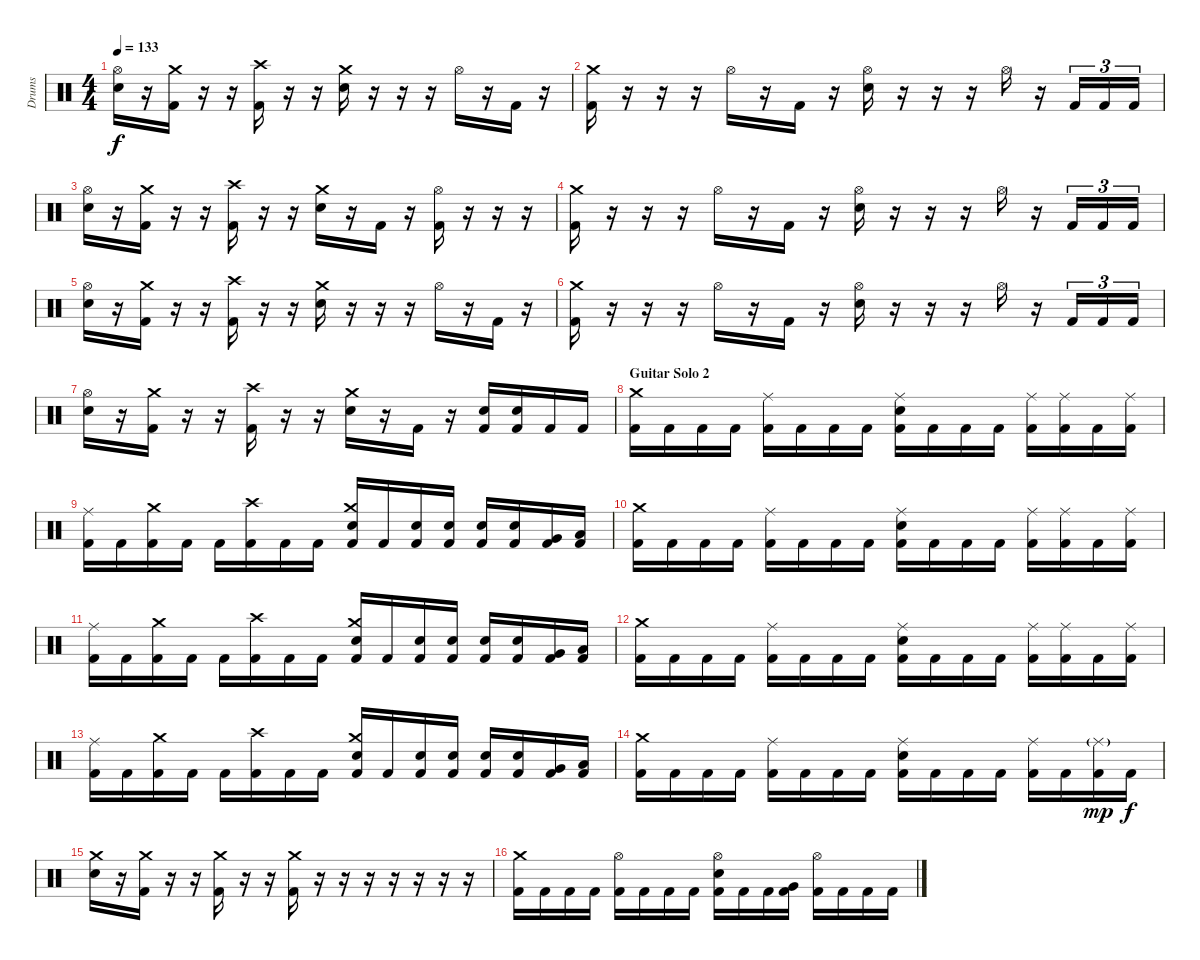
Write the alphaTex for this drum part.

\track ("Drums" "Drums") {instrument percussion}
\staff {score}
\articulation defaults
\ts (4 4)
\tempo 133
\clef neutral
\ks c
("Hi-Hat (open)" "Electric Snare (hit)").16{dy f} r.16 ("Crash medium (hit)" "Kick (hit) 2").16 r.16 r.16 ("Crash high (hit)" "Kick (hit) 2").16 r.16 r.16 ("Crash medium (hit)" "Electric Snare (hit)").16 r.16 r.16 r.16 "Hi-Hat (open)".16 r.16 "Kick (hit) 2".16 r.16 |
("Crash medium (hit)" "Kick (hit) 2").16 r.16 r.16 r.16 "Hi-Hat (open)".16 r.16 "Kick (hit) 2".16 r.16 ("Hi-Hat (open)" "Electric Snare (hit)").16 r.16 r.16 r.16 "Hi-Hat (open)".16 r.16 "Kick (hit) 2".16{tu (3 2)} "Kick (hit) 2".16{tu (3 2)} "Kick (hit) 2".16{tu (3 2)} |
("Hi-Hat (open)" "Electric Snare (hit)").16 r.16 ("Crash medium (hit)" "Kick (hit) 2").16 r.16 r.16 ("Crash high (hit)" "Kick (hit) 2").16 r.16 r.16 ("Crash medium (hit)" "Electric Snare (hit)").16 r.16 "Kick (hit) 2".16 r.16 ("Hi-Hat (open)" "Kick (hit) 2").16 r.16 r.16 r.16 |
("Crash medium (hit)" "Kick (hit) 2").16 r.16 r.16 r.16 "Hi-Hat (open)".16 r.16 "Kick (hit) 2".16 r.16 ("Hi-Hat (open)" "Electric Snare (hit)").16 r.16 r.16 r.16 "Hi-Hat (open)".16 r.16 "Kick (hit) 2".16{tu (3 2)} "Kick (hit) 2".16{tu (3 2)} "Kick (hit) 2".16{tu (3 2)} |
("Hi-Hat (open)" "Electric Snare (hit)").16 r.16 ("Crash medium (hit)" "Kick (hit) 2").16 r.16 r.16 ("Crash high (hit)" "Kick (hit) 2").16 r.16 r.16 ("Crash medium (hit)" "Electric Snare (hit)").16 r.16 r.16 r.16 "Hi-Hat (open)".16 r.16 "Kick (hit) 2".16 r.16 |
("Crash medium (hit)" "Kick (hit) 2").16 r.16 r.16 r.16 "Hi-Hat (open)".16 r.16 "Kick (hit) 2".16 r.16 ("Hi-Hat (open)" "Electric Snare (hit)").16 r.16 r.16 r.16 "Hi-Hat (open)".16 r.16 "Kick (hit) 2".16{tu (3 2)} "Kick (hit) 2".16{tu (3 2)} "Kick (hit) 2".16{tu (3 2)} |
("Hi-Hat (open)" "Electric Snare (hit)").16 r.16 ("Crash medium (hit)" "Kick (hit) 2").16 r.16 r.16 ("Crash high (hit)" "Kick (hit) 2").16 r.16 r.16 ("Crash medium (hit)" "Electric Snare (hit)").16 r.16 "Kick (hit) 2".16 r.16 ("Electric Snare (hit)" "Kick (hit) 2").16 ("Electric Snare (hit)" "Kick (hit) 2").16 "Kick (hit) 2".16 "Kick (hit) 2".16 |
\section ("" "Guitar Solo 2")
("Crash medium (hit)" "Kick (hit) 2").16 "Kick (hit) 2".16 "Kick (hit) 2".16 "Kick (hit) 2".16 ("Ride (middle)" "Kick (hit) 2").16 "Kick (hit) 2".16 "Kick (hit) 2".16 "Kick (hit) 2".16 ("Ride (middle)" "Electric Snare (hit)" "Kick (hit) 2").16 "Kick (hit) 2".16 "Kick (hit) 2".16 "Kick (hit) 2".16 ("Ride (middle)" "Kick (hit) 2").16 ("Ride (middle)" "Kick (hit) 2").16 "Kick (hit) 2".16 ("Ride (middle)" "Kick (hit) 2").16 |
("Ride (middle)" "Kick (hit) 2").16 "Kick (hit) 2".16 ("Crash medium (hit)" "Kick (hit) 2").16 "Kick (hit) 2".16 "Kick (hit) 2".16 ("Crash high (hit)" "Kick (hit) 2").16 "Kick (hit) 2".16 "Kick (hit) 2".16 ("Crash medium (hit)" "Electric Snare (hit)" "Kick (hit) 2").16 "Kick (hit) 2".16 ("Electric Snare (hit)" "Kick (hit) 2").16 ("Electric Snare (hit)" "Kick (hit) 2").16 ("Electric Snare (hit)" "Kick (hit) 2").16 ("Electric Snare (hit)" "Kick (hit) 2").16 ("Very Low Tom (hit)" "Kick (hit) 2").16 ("Low Floor Tom (hit)" "Kick (hit) 2").16 |
("Crash medium (hit)" "Kick (hit) 2").16 "Kick (hit) 2".16 "Kick (hit) 2".16 "Kick (hit) 2".16 ("Ride (middle)" "Kick (hit) 2").16 "Kick (hit) 2".16 "Kick (hit) 2".16 "Kick (hit) 2".16 ("Ride (middle)" "Electric Snare (hit)" "Kick (hit) 2").16 "Kick (hit) 2".16 "Kick (hit) 2".16 "Kick (hit) 2".16 ("Ride (middle)" "Kick (hit) 2").16 ("Ride (middle)" "Kick (hit) 2").16 "Kick (hit) 2".16 ("Ride (middle)" "Kick (hit) 2").16 |
("Ride (middle)" "Kick (hit) 2").16 "Kick (hit) 2".16 ("Crash medium (hit)" "Kick (hit) 2").16 "Kick (hit) 2".16 "Kick (hit) 2".16 ("Crash high (hit)" "Kick (hit) 2").16 "Kick (hit) 2".16 "Kick (hit) 2".16 ("Crash medium (hit)" "Electric Snare (hit)" "Kick (hit) 2").16 "Kick (hit) 2".16 ("Electric Snare (hit)" "Kick (hit) 2").16 ("Electric Snare (hit)" "Kick (hit) 2").16 ("Electric Snare (hit)" "Kick (hit) 2").16 ("Electric Snare (hit)" "Kick (hit) 2").16 ("Very Low Tom (hit)" "Kick (hit) 2").16 ("Low Floor Tom (hit)" "Kick (hit) 2").16 |
("Crash medium (hit)" "Kick (hit) 2").16 "Kick (hit) 2".16 "Kick (hit) 2".16 "Kick (hit) 2".16 ("Ride (middle)" "Kick (hit) 2").16 "Kick (hit) 2".16 "Kick (hit) 2".16 "Kick (hit) 2".16 ("Ride (middle)" "Electric Snare (hit)" "Kick (hit) 2").16 "Kick (hit) 2".16 "Kick (hit) 2".16 "Kick (hit) 2".16 ("Ride (middle)" "Kick (hit) 2").16 ("Ride (middle)" "Kick (hit) 2").16 "Kick (hit) 2".16 ("Ride (middle)" "Kick (hit) 2").16 |
("Ride (middle)" "Kick (hit) 2").16 "Kick (hit) 2".16 ("Crash medium (hit)" "Kick (hit) 2").16 "Kick (hit) 2".16 "Kick (hit) 2".16 ("Crash high (hit)" "Kick (hit) 2").16 "Kick (hit) 2".16 "Kick (hit) 2".16 ("Crash medium (hit)" "Electric Snare (hit)" "Kick (hit) 2").16 "Kick (hit) 2".16 ("Electric Snare (hit)" "Kick (hit) 2").16 ("Electric Snare (hit)" "Kick (hit) 2").16 ("Electric Snare (hit)" "Kick (hit) 2").16 ("Electric Snare (hit)" "Kick (hit) 2").16 ("Very Low Tom (hit)" "Kick (hit) 2").16 ("Low Floor Tom (hit)" "Kick (hit) 2").16 |
("Crash medium (hit)" "Kick (hit) 2").16 "Kick (hit) 2".16 "Kick (hit) 2".16 "Kick (hit) 2".16 ("Ride (middle)" "Kick (hit) 2").16 "Kick (hit) 2".16 "Kick (hit) 2".16 "Kick (hit) 2".16 ("Ride (middle)" "Electric Snare (hit)" "Kick (hit) 2").16 "Kick (hit) 2".16 "Kick (hit) 2".16 "Kick (hit) 2".16 ("Ride (middle)" "Kick (hit) 2").16 "Kick (hit) 2".16 ("Ride (middle)"{g} "Kick (hit) 2").16{dy mp} "Kick (hit) 2".16{dy f} |
("Crash medium (hit)" "Electric Snare (hit)").16 r.16 ("Crash medium (hit)" "Kick (hit) 2").16 r.16 r.16 ("Crash medium (hit)" "Kick (hit) 2").16 r.16 r.16 ("Crash medium (hit)" "Kick (hit) 2").16 r.16 r.16 r.16 r.16 r.16 r.16 r.16 |
\section ("" "")
("Crash medium (hit)" "Kick (hit) 2").16 "Kick (hit) 2".16 "Kick (hit) 2".16 "Kick (hit) 2".16 ("Hi-Hat (open)" "Kick (hit) 2").16 "Kick (hit) 2".16 "Kick (hit) 2".16 "Kick (hit) 2".16 ("Hi-Hat (open)" "Electric Snare (hit)" "Kick (hit) 2").16 "Kick (hit) 2".16 "Kick (hit) 2".16 ("Very Low Tom (hit)" "Kick (hit) 2").16 ("Hi-Hat (open)" "Kick (hit) 2").16 "Kick (hit) 2".16 "Kick (hit) 2".16 "Kick (hit) 2".16
